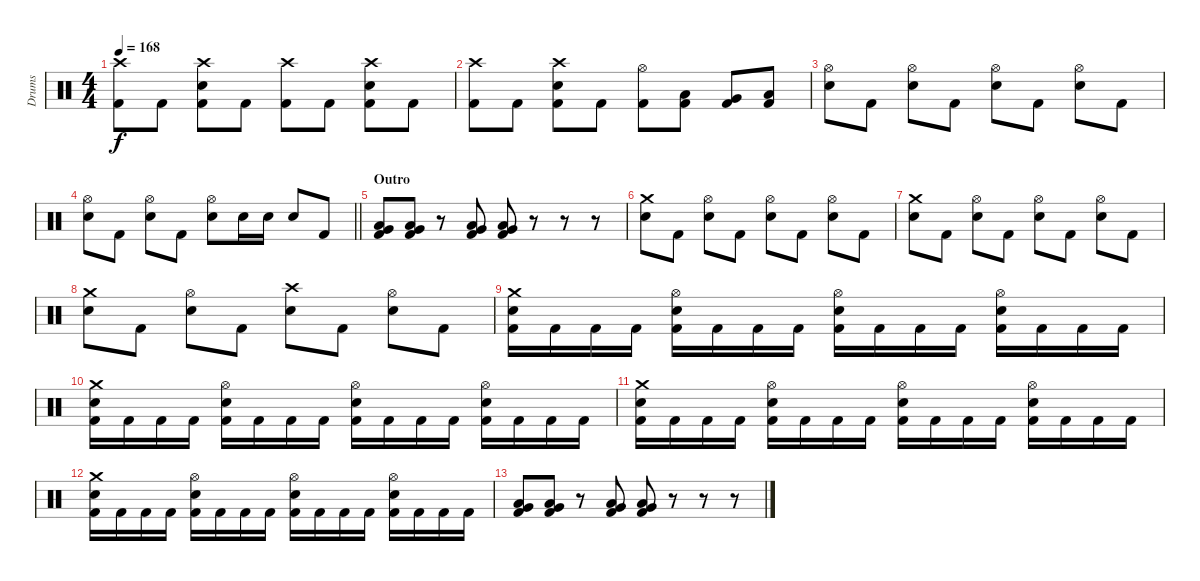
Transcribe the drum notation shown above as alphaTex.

\track ("Drums" "Drums") {instrument percussion}
\staff {score}
\articulation defaults
\ts (4 4)
\tempo 168
\clef neutral
\ks c
("Crash high (hit)" "Kick (hit) 2").8{dy f} "Kick (hit) 2".8 ("Crash high (hit)" "Electric Snare (hit)" "Kick (hit) 2").8 "Kick (hit) 2".8 ("Crash high (hit)" "Kick (hit) 2").8 "Kick (hit) 2".8 ("Crash high (hit)" "Electric Snare (hit)" "Kick (hit) 2").8 "Kick (hit) 2".8 |
("Crash high (hit)" "Kick (hit) 2").8 "Kick (hit) 2".8 ("Crash high (hit)" "Electric Snare (hit)" "Kick (hit) 2").8 "Kick (hit) 2".8 ("Hi-Hat (open)" "Kick (hit) 2").8 ("Low Tom (hit)" "Kick (hit) 2").8 ("Very Low Tom (hit)" "Kick (hit) 2").8 ("Low Floor Tom (hit)" "Kick (hit) 2").8 |
("Hi-Hat (open)" "Electric Snare (hit)").8 "Kick (hit) 2".8 ("Hi-Hat (open)" "Electric Snare (hit)").8 "Kick (hit) 2".8 ("Hi-Hat (open)" "Electric Snare (hit)").8 "Kick (hit) 2".8 ("Hi-Hat (open)" "Electric Snare (hit)").8 "Kick (hit) 2".8 |
\barLineRight lightlight
("Hi-Hat (open)" "Electric Snare (hit)").8 "Kick (hit) 2".8 ("Hi-Hat (open)" "Electric Snare (hit)").8 "Kick (hit) 2".8 ("Hi-Hat (open)" "Electric Snare (hit)").8 "Electric Snare (hit)".16 "Electric Snare (hit)".16 "Electric Snare (hit)".8 "Kick (hit) 2".8 |
\section ("" "Outro")
("Low Tom (hit)" "Very Low Tom (hit)" "Kick (hit) 2").8 ("Low Tom (hit)" "Very Low Tom (hit)" "Kick (hit) 2").8 r.8 ("Low Tom (hit)" "Very Low Tom (hit)" "Kick (hit) 2").8 ("Low Tom (hit)" "Very Low Tom (hit)" "Kick (hit) 2").8 r.8 r.8 r.8 |
("Crash medium (hit)" "Electric Snare (hit)").8 "Kick (hit) 2".8 ("Hi-Hat (open)" "Electric Snare (hit)").8 "Kick (hit) 2".8 ("Hi-Hat (open)" "Electric Snare (hit)").8 "Kick (hit) 2".8 ("Hi-Hat (open)" "Electric Snare (hit)").8 "Kick (hit) 2".8 |
("Crash medium (hit)" "Electric Snare (hit)").8 "Kick (hit) 2".8 ("Hi-Hat (open)" "Electric Snare (hit)").8 "Kick (hit) 2".8 ("Hi-Hat (open)" "Electric Snare (hit)").8 "Kick (hit) 2".8 ("Hi-Hat (open)" "Electric Snare (hit)").8 "Kick (hit) 2".8 |
("Crash medium (hit)" "Electric Snare (hit)").8 "Kick (hit) 2".8 ("Hi-Hat (open)" "Electric Snare (hit)").8 "Kick (hit) 2".8 ("Crash high (hit)" "Electric Snare (hit)").8 "Kick (hit) 2".8 ("Hi-Hat (open)" "Electric Snare (hit)").8 "Kick (hit) 2".8 |
("Crash medium (hit)" "Electric Snare (hit)" "Kick (hit) 2").16 "Kick (hit) 2".16 "Kick (hit) 2".16 "Kick (hit) 2".16 ("Hi-Hat (open)" "Electric Snare (hit)" "Kick (hit) 2").16 "Kick (hit) 2".16 "Kick (hit) 2".16 "Kick (hit) 2".16 ("Hi-Hat (open)" "Electric Snare (hit)" "Kick (hit) 2").16 "Kick (hit) 2".16 "Kick (hit) 2".16 "Kick (hit) 2".16 ("Hi-Hat (open)" "Electric Snare (hit)" "Kick (hit) 2").16 "Kick (hit) 2".16 "Kick (hit) 2".16 "Kick (hit) 2".16 |
("Crash medium (hit)" "Electric Snare (hit)" "Kick (hit) 2").16 "Kick (hit) 2".16 "Kick (hit) 2".16 "Kick (hit) 2".16 ("Hi-Hat (open)" "Electric Snare (hit)" "Kick (hit) 2").16 "Kick (hit) 2".16 "Kick (hit) 2".16 "Kick (hit) 2".16 ("Hi-Hat (open)" "Electric Snare (hit)" "Kick (hit) 2").16 "Kick (hit) 2".16 "Kick (hit) 2".16 "Kick (hit) 2".16 ("Hi-Hat (open)" "Electric Snare (hit)" "Kick (hit) 2").16 "Kick (hit) 2".16 "Kick (hit) 2".16 "Kick (hit) 2".16 |
("Crash medium (hit)" "Electric Snare (hit)" "Kick (hit) 2").16 "Kick (hit) 2".16 "Kick (hit) 2".16 "Kick (hit) 2".16 ("Hi-Hat (open)" "Electric Snare (hit)" "Kick (hit) 2").16 "Kick (hit) 2".16 "Kick (hit) 2".16 "Kick (hit) 2".16 ("Hi-Hat (open)" "Electric Snare (hit)" "Kick (hit) 2").16 "Kick (hit) 2".16 "Kick (hit) 2".16 "Kick (hit) 2".16 ("Hi-Hat (open)" "Electric Snare (hit)" "Kick (hit) 2").16 "Kick (hit) 2".16 "Kick (hit) 2".16 "Kick (hit) 2".16 |
("Crash medium (hit)" "Electric Snare (hit)" "Kick (hit) 2").16 "Kick (hit) 2".16 "Kick (hit) 2".16 "Kick (hit) 2".16 ("Hi-Hat (open)" "Electric Snare (hit)" "Kick (hit) 2").16 "Kick (hit) 2".16 "Kick (hit) 2".16 "Kick (hit) 2".16 ("Hi-Hat (open)" "Electric Snare (hit)" "Kick (hit) 2").16 "Kick (hit) 2".16 "Kick (hit) 2".16 "Kick (hit) 2".16 ("Hi-Hat (open)" "Electric Snare (hit)" "Kick (hit) 2").16 "Kick (hit) 2".16 "Kick (hit) 2".16 "Kick (hit) 2".16 |
("Low Tom (hit)" "Very Low Tom (hit)" "Kick (hit) 2").8 ("Low Tom (hit)" "Very Low Tom (hit)" "Kick (hit) 2").8 r.8 ("Low Tom (hit)" "Very Low Tom (hit)" "Kick (hit) 2").8 ("Low Tom (hit)" "Very Low Tom (hit)" "Kick (hit) 2").8 r.8 r.8 r.8
